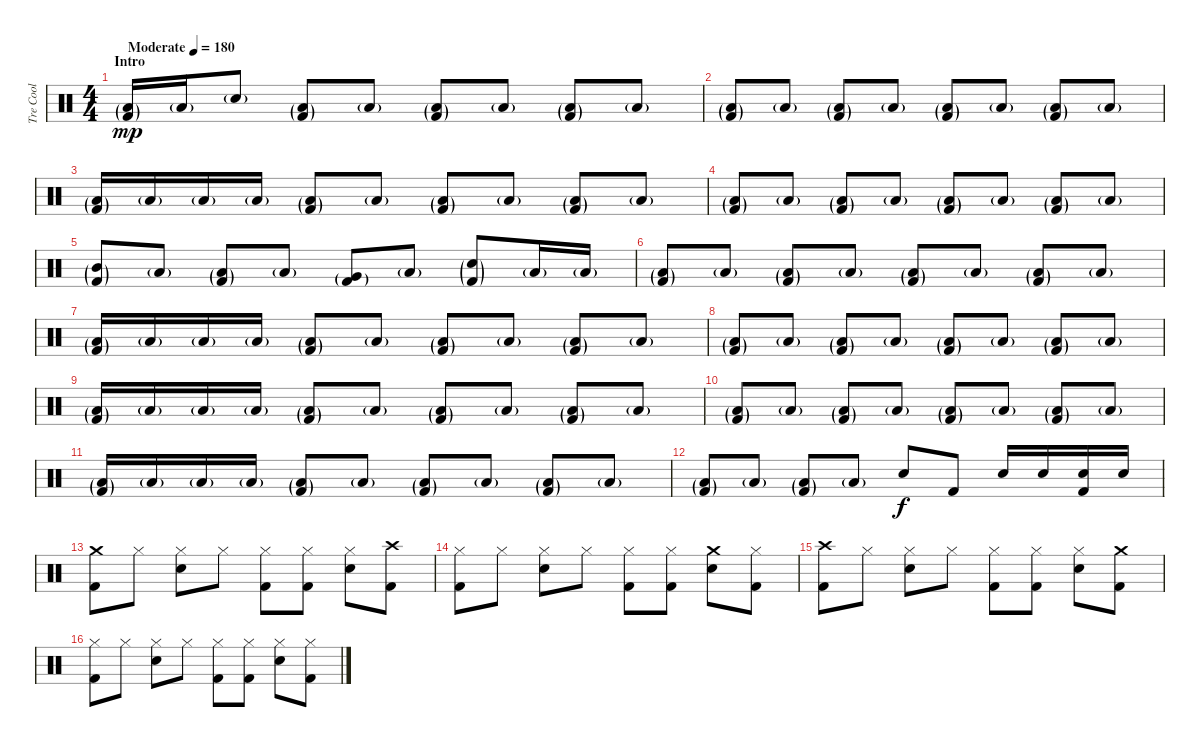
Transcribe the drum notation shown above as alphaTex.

\track ("Tre Cool" "Tre Cool") {instrument percussion}
\staff {score}
\articulation defaults
\ts (4 4)
\section ("" "Intro")
\tempo (180 "Moderate")
\clef neutral
\ks c
("Kick (hit) 2"{g} "Low Floor Tom (hit)"{g}).16{dy mp} "Low Floor Tom (hit)"{g}.16 "Snare (hit) 2"{g}.8 ("Kick (hit) 2"{g} "Low Floor Tom (hit)"{g}).8 "Low Floor Tom (hit)"{g}.8 ("Kick (hit) 2"{g} "Low Floor Tom (hit)"{g}).8 "Low Floor Tom (hit)"{g}.8 ("Kick (hit) 2"{g} "Low Floor Tom (hit)"{g}).8 "Low Floor Tom (hit)"{g}.8 |
("Kick (hit) 2"{g} "Low Floor Tom (hit)"{g}).8 "Low Floor Tom (hit)"{g}.8 ("Kick (hit) 2"{g} "Low Floor Tom (hit)"{g}).8 "Low Floor Tom (hit)"{g}.8 ("Kick (hit) 2"{g} "Low Floor Tom (hit)"{g}).8 "Low Floor Tom (hit)"{g}.8 ("Kick (hit) 2"{g} "Low Floor Tom (hit)"{g}).8 "Low Floor Tom (hit)"{g}.8 |
("Kick (hit) 2"{g} "Low Floor Tom (hit)"{g}).16 "Low Floor Tom (hit)"{g}.16 "Low Floor Tom (hit)"{g}.16 "Low Floor Tom (hit)"{g}.16 ("Kick (hit) 2"{g} "Low Floor Tom (hit)"{g}).8 "Low Floor Tom (hit)"{g}.8 ("Kick (hit) 2"{g} "Low Floor Tom (hit)"{g}).8 "Low Floor Tom (hit)"{g}.8 ("Kick (hit) 2"{g} "Low Floor Tom (hit)"{g}).8 "Low Floor Tom (hit)"{g}.8 |
("Kick (hit) 2"{g} "Low Floor Tom (hit)"{g}).8 "Low Floor Tom (hit)"{g}.8 ("Kick (hit) 2"{g} "Low Floor Tom (hit)"{g}).8 "Low Floor Tom (hit)"{g}.8 ("Kick (hit) 2"{g} "Low Floor Tom (hit)"{g}).8 "Low Floor Tom (hit)"{g}.8 ("Kick (hit) 2"{g} "Low Floor Tom (hit)"{g}).8 "Low Floor Tom (hit)"{g}.8 |
("Kick (hit) 2"{g} "Mid Tom (hit)"{g}).8 "Low Floor Tom (hit)"{g}.8 ("Kick (hit) 2"{g} "Low Tom (hit)"{g}).8 "Low Floor Tom (hit)"{g}.8 ("Kick (hit) 2"{g} "Very Low Tom (hit)"{g}).8 "Low Floor Tom (hit)"{g}.8 ("Kick (hit) 2"{g} "Snare (hit) 2"{g}).8 "Low Floor Tom (hit)"{g}.16 "Low Floor Tom (hit)"{g}.16 |
("Kick (hit) 2"{g} "Low Floor Tom (hit)"{g}).8 "Low Floor Tom (hit)"{g}.8 ("Kick (hit) 2"{g} "Low Floor Tom (hit)"{g}).8 "Low Floor Tom (hit)"{g}.8 ("Kick (hit) 2"{g} "Low Floor Tom (hit)"{g}).8 "Low Floor Tom (hit)"{g}.8 ("Kick (hit) 2"{g} "Low Floor Tom (hit)"{g}).8 "Low Floor Tom (hit)"{g}.8 |
("Kick (hit) 2"{g} "Low Floor Tom (hit)"{g}).16 "Low Floor Tom (hit)"{g}.16 "Low Floor Tom (hit)"{g}.16 "Low Floor Tom (hit)"{g}.16 ("Kick (hit) 2"{g} "Low Floor Tom (hit)"{g}).8 "Low Floor Tom (hit)"{g}.8 ("Kick (hit) 2"{g} "Low Floor Tom (hit)"{g}).8 "Low Floor Tom (hit)"{g}.8 ("Kick (hit) 2"{g} "Low Floor Tom (hit)"{g}).8 "Low Floor Tom (hit)"{g}.8 |
("Kick (hit) 2"{g} "Low Floor Tom (hit)"{g}).8 "Low Floor Tom (hit)"{g}.8 ("Kick (hit) 2"{g} "Low Floor Tom (hit)"{g}).8 "Low Floor Tom (hit)"{g}.8 ("Kick (hit) 2"{g} "Low Floor Tom (hit)"{g}).8 "Low Floor Tom (hit)"{g}.8 ("Kick (hit) 2"{g} "Low Floor Tom (hit)"{g}).8 "Low Floor Tom (hit)"{g}.8 |
("Kick (hit) 2"{g} "Low Floor Tom (hit)"{g}).16 "Low Floor Tom (hit)"{g}.16 "Low Floor Tom (hit)"{g}.16 "Low Floor Tom (hit)"{g}.16 ("Kick (hit) 2"{g} "Low Floor Tom (hit)"{g}).8 "Low Floor Tom (hit)"{g}.8 ("Kick (hit) 2"{g} "Low Floor Tom (hit)"{g}).8 "Low Floor Tom (hit)"{g}.8 ("Kick (hit) 2"{g} "Low Floor Tom (hit)"{g}).8 "Low Floor Tom (hit)"{g}.8 |
("Kick (hit) 2"{g} "Low Floor Tom (hit)"{g}).8 "Low Floor Tom (hit)"{g}.8 ("Kick (hit) 2"{g} "Low Floor Tom (hit)"{g}).8 "Low Floor Tom (hit)"{g}.8 ("Kick (hit) 2"{g} "Low Floor Tom (hit)"{g}).8 "Low Floor Tom (hit)"{g}.8 ("Kick (hit) 2"{g} "Low Floor Tom (hit)"{g}).8 "Low Floor Tom (hit)"{g}.8 |
("Kick (hit) 2"{g} "Low Floor Tom (hit)"{g}).16 "Low Floor Tom (hit)"{g}.16 "Low Floor Tom (hit)"{g}.16 "Low Floor Tom (hit)"{g}.16 ("Kick (hit) 2"{g} "Low Floor Tom (hit)"{g}).8 "Low Floor Tom (hit)"{g}.8 ("Kick (hit) 2"{g} "Low Floor Tom (hit)"{g}).8 "Low Floor Tom (hit)"{g}.8 ("Kick (hit) 2"{g} "Low Floor Tom (hit)"{g}).8 "Low Floor Tom (hit)"{g}.8 |
("Kick (hit) 2"{g} "Low Floor Tom (hit)"{g}).8 "Low Floor Tom (hit)"{g}.8 ("Kick (hit) 2"{g} "Low Floor Tom (hit)"{g}).8 "Low Floor Tom (hit)"{g}.8 "Snare (hit) 2".8{dy f} "Kick (hit) 2".8 "Snare (hit) 2".16 "Snare (hit) 2".16 ("Kick (hit) 2" "Snare (hit) 2").16 "Snare (hit) 2".16 |
("Kick (hit) 2" "Crash medium (hit)").8 "Hi-Hat (closed)".8 ("Snare (hit) 2" "Hi-Hat (closed)").8 "Hi-Hat (closed)".8 ("Kick (hit) 2" "Hi-Hat (closed)").8 ("Kick (hit) 2" "Hi-Hat (closed)").8 ("Snare (hit) 2" "Hi-Hat (closed)").8 ("Kick (hit) 2" "Crash high (hit)").8 |
("Kick (hit) 2" "Hi-Hat (closed)").8 "Hi-Hat (closed)".8 ("Snare (hit) 2" "Hi-Hat (closed)").8 "Hi-Hat (closed)".8 ("Kick (hit) 2" "Hi-Hat (closed)").8 ("Kick (hit) 2" "Hi-Hat (closed)").8 ("Snare (hit) 2" "Crash medium (hit)").8 ("Kick (hit) 2" "Hi-Hat (closed)").8 |
("Kick (hit) 2" "Crash high (hit)").8 "Hi-Hat (closed)".8 ("Snare (hit) 2" "Hi-Hat (closed)").8 "Hi-Hat (closed)".8 ("Kick (hit) 2" "Hi-Hat (closed)").8 ("Kick (hit) 2" "Hi-Hat (closed)").8 ("Snare (hit) 2" "Hi-Hat (closed)").8 ("Kick (hit) 2" "Crash medium (hit)").8 |
("Kick (hit) 2" "Hi-Hat (closed)").8 "Hi-Hat (closed)".8 ("Snare (hit) 2" "Hi-Hat (closed)").8 "Hi-Hat (closed)".8 ("Kick (hit) 2" "Hi-Hat (closed)").8 ("Kick (hit) 2" "Hi-Hat (closed)").8 ("Snare (hit) 2" "Hi-Hat (closed)").8 ("Kick (hit) 2" "Hi-Hat (closed)").8
